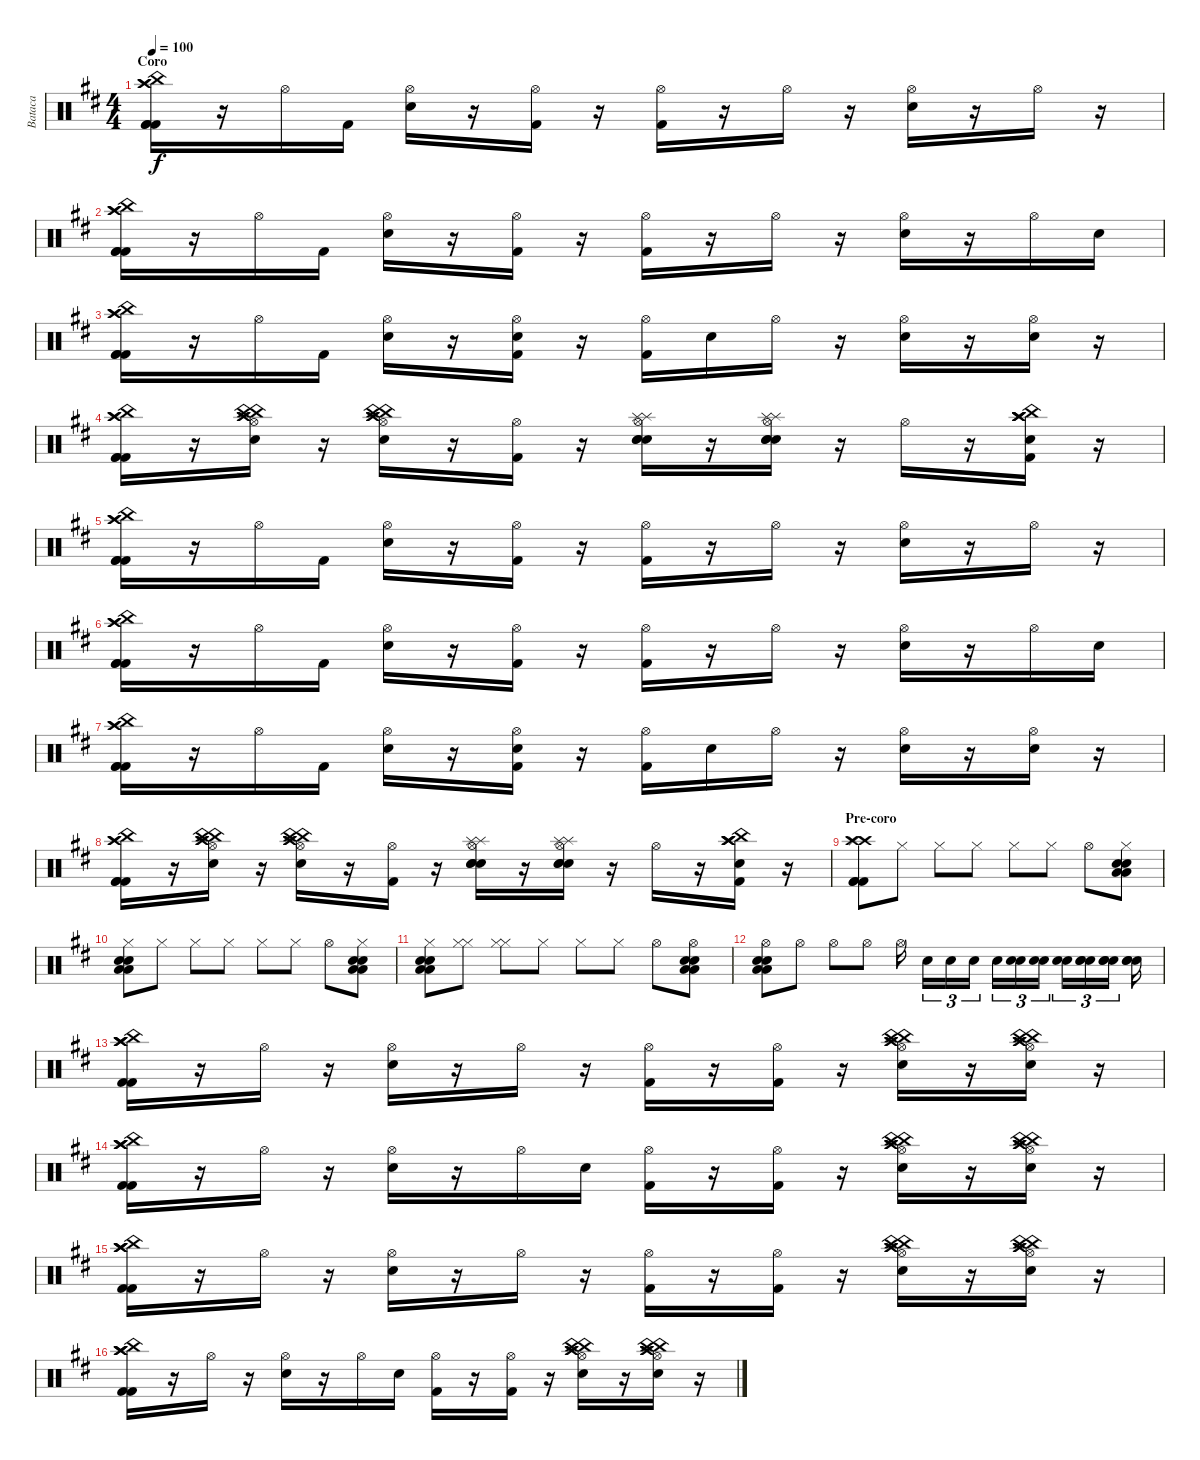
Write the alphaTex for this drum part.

\track ("Bataca" "Bataca") {instrument percussion}
\staff {score}
\articulation defaults
\ts (4 4)
\section ("" "Coro")
\tempo 100
\clef neutral
\ks d
("Crash high (hit)" "Crash high (hit)" "China (hit)" "Kick (hit) 2" "Kick (hit) 2" "Kick (hit) 2").16{dy f} r.16 "Hi-Hat (open)".16 "Kick (hit) 2".16 ("Hi-Hat (open)" "Snare (hit) 2").16 r.16 ("Hi-Hat (open)" "Kick (hit) 2").16 r.16 ("Hi-Hat (open)" "Kick (hit) 2").16 r.16 "Hi-Hat (open)".16 r.16 ("Hi-Hat (open)" "Snare (hit) 2").16 r.16 "Hi-Hat (open)".16 r.16 |
("Crash high (hit)" "Crash high (hit)" "China (hit)" "Kick (hit) 2" "Kick (hit) 2" "Kick (hit) 2").16 r.16 "Hi-Hat (open)".16 "Kick (hit) 2".16 ("Hi-Hat (open)" "Snare (hit) 2").16 r.16 ("Hi-Hat (open)" "Kick (hit) 2").16 r.16 ("Hi-Hat (open)" "Kick (hit) 2").16 r.16 "Hi-Hat (open)".16 r.16 ("Hi-Hat (open)" "Snare (hit) 2").16 r.16 "Hi-Hat (open)".16 "Snare (hit) 2".16 |
("Crash high (hit)" "Crash high (hit)" "China (hit)" "Kick (hit) 2" "Kick (hit) 2" "Kick (hit) 2").16 r.16 "Hi-Hat (open)".16 "Kick (hit) 2".16 ("Hi-Hat (open)" "Snare (hit) 2").16 r.16 ("Hi-Hat (open)" "Snare (hit) 2" "Kick (hit) 2").16 r.16 ("Hi-Hat (open)" "Kick (hit) 2").16 "Snare (hit) 2".16 "Hi-Hat (open)".16 r.16 ("Hi-Hat (open)" "Snare (hit) 2").16 r.16 ("Hi-Hat (open)" "Snare (hit) 2").16 r.16 |
("Crash high (hit)" "Crash high (hit)" "China (hit)" "Kick (hit) 2" "Kick (hit) 2" "Kick (hit) 2").16 r.16 ("Hi-Hat (open)" "Snare (hit) 2" "Crash high (hit)" "Crash high (hit)" "China (hit)" "China (hit)").16 r.16 ("Hi-Hat (open)" "Snare (hit) 2" "Crash high (hit)" "Crash high (hit)" "China (hit)" "China (hit)").16 r.16 ("Hi-Hat (open)" "Kick (hit) 2").16 r.16 ("Hi-Hat (open)" "Snare (hit) 2" "Snare (hit)" "Snare (hit)" "Splash (hit)" "Splash (hit)").16 r.16 ("Hi-Hat (open)" "Snare (hit) 2" "Snare (hit)" "Snare (hit)" "Splash (hit)" "Splash (hit)").16 r.16 "Hi-Hat (open)".16 r.16 ("Kick (hit) 2" "Snare (hit) 2" "Crash high (hit)" "Crash high (hit)" "China (hit)" "Crash high (hit)").16 r.16 |
("Crash high (hit)" "Crash high (hit)" "China (hit)" "Kick (hit) 2" "Kick (hit) 2" "Kick (hit) 2").16 r.16 "Hi-Hat (open)".16 "Kick (hit) 2".16 ("Hi-Hat (open)" "Snare (hit) 2").16 r.16 ("Hi-Hat (open)" "Kick (hit) 2").16 r.16 ("Hi-Hat (open)" "Kick (hit) 2").16 r.16 "Hi-Hat (open)".16 r.16 ("Hi-Hat (open)" "Snare (hit) 2").16 r.16 "Hi-Hat (open)".16 r.16 |
("Crash high (hit)" "Crash high (hit)" "China (hit)" "Kick (hit) 2" "Kick (hit) 2" "Kick (hit) 2").16 r.16 "Hi-Hat (open)".16 "Kick (hit) 2".16 ("Hi-Hat (open)" "Snare (hit) 2").16 r.16 ("Hi-Hat (open)" "Kick (hit) 2").16 r.16 ("Hi-Hat (open)" "Kick (hit) 2").16 r.16 "Hi-Hat (open)".16 r.16 ("Hi-Hat (open)" "Snare (hit) 2").16 r.16 "Hi-Hat (open)".16 "Snare (hit) 2".16 |
("Crash high (hit)" "Crash high (hit)" "China (hit)" "Kick (hit) 2" "Kick (hit) 2" "Kick (hit) 2").16 r.16 "Hi-Hat (open)".16 "Kick (hit) 2".16 ("Hi-Hat (open)" "Snare (hit) 2").16 r.16 ("Hi-Hat (open)" "Snare (hit) 2" "Kick (hit) 2").16 r.16 ("Hi-Hat (open)" "Kick (hit) 2").16 "Snare (hit) 2".16 "Hi-Hat (open)".16 r.16 ("Hi-Hat (open)" "Snare (hit) 2").16 r.16 ("Hi-Hat (open)" "Snare (hit) 2").16 r.16 |
("Crash high (hit)" "Crash high (hit)" "China (hit)" "Kick (hit) 2" "Kick (hit) 2" "Kick (hit) 2").16 r.16 ("Hi-Hat (open)" "Snare (hit) 2" "Crash high (hit)" "Crash high (hit)" "China (hit)" "China (hit)").16 r.16 ("Hi-Hat (open)" "Snare (hit) 2" "Crash high (hit)" "Crash high (hit)" "China (hit)" "China (hit)").16 r.16 ("Hi-Hat (open)" "Kick (hit) 2").16 r.16 ("Hi-Hat (open)" "Snare (hit) 2" "Snare (hit)" "Snare (hit)" "Splash (hit)" "Splash (hit)").16 r.16 ("Hi-Hat (open)" "Snare (hit) 2" "Snare (hit)" "Snare (hit)" "Splash (hit)" "Splash (hit)").16 r.16 "Hi-Hat (open)".16 r.16 ("Kick (hit) 2" "Snare (hit) 2" "Crash high (hit)" "Crash high (hit)" "China (hit)" "Crash high (hit)").16 r.16 |
\section ("" "Pre-coro")
("Crash high (hit)" "Kick (hit) 2" "Splash (hit)" "Crash high (hit)" "Kick (hit) 2" "Kick (hit) 2").8 "Hi-Hat (closed)".8 "Hi-Hat (closed)".8 "Hi-Hat (closed)".8 "Hi-Hat (closed)".8 "Hi-Hat (closed)".8 "Hi-Hat (open)".8 ("Hi-Hat (closed)" "Snare (hit) 2" "Snare (hit) 2" "Low Floor Tom (hit)" "Low Floor Tom (hit)").8 |
("Hi-Hat (closed)" "Snare (hit) 2" "Snare (hit) 2" "Low Floor Tom (hit)" "Low Floor Tom (hit)").8 "Hi-Hat (closed)".8 "Hi-Hat (closed)".8 "Hi-Hat (closed)".8 "Hi-Hat (closed)".8 "Hi-Hat (closed)".8 "Hi-Hat (open)".8 ("Hi-Hat (closed)" "Snare (hit) 2" "Snare (hit) 2" "Low Floor Tom (hit)" "Low Floor Tom (hit)").8 |
("Hi-Hat (closed)" "Snare (hit) 2" "Snare (hit) 2" "Low Floor Tom (hit)" "Low Floor Tom (hit)").8 ("Hi-Hat (closed)" "Hi-Hat (closed)").8 ("Hi-Hat (closed)" "Hi-Hat (closed)").8 "Hi-Hat (closed)".8 "Hi-Hat (closed)".8 "Hi-Hat (closed)".8 "Hi-Hat (open)".8 ("Hi-Hat (open)" "Snare (hit) 2" "Snare (hit) 2" "Low Floor Tom (hit)" "Low Floor Tom (hit)").8 |
("Hi-Hat (open)" "Snare (hit) 2" "Snare (hit) 2" "Low Floor Tom (hit)" "Low Floor Tom (hit)").8 "Hi-Hat (open)".8 "Hi-Hat (open)".8{volume 16} "Hi-Hat (open)".8 "Hi-Hat (open)".16 "Snare (hit) 2".16{tu (3 2)} "Snare (hit) 2".16{tu (3 2)} "Snare (hit) 2".16{tu (3 2)} "Snare (hit) 2".16{tu (3 2)} ("Snare (hit) 2" "Snare (hit) 2").16{tu (3 2)} ("Snare (hit) 2" "Snare (hit) 2").16{tu (3 2)} ("Snare (hit) 2" "Snare (hit) 2").16{tu (3 2)} ("Snare (hit) 2" "Snare (hit) 2" "Snare (hit) 2").16{tu (3 2)} ("Snare (hit) 2" "Snare (hit) 2" "Snare (hit) 2").16{tu (3 2)} ("Snare (hit) 2" "Snare (hit) 2" "Snare (hit) 2").16 |
("Crash high (hit)" "China (hit)" "Crash high (hit)" "Crash high (hit)" "Kick (hit) 2" "Kick (hit) 2").16 r.16 "Hi-Hat (open)".16 r.16 ("Hi-Hat (open)" "Snare (hit) 2").16 r.16 "Hi-Hat (open)".16 r.16 ("Hi-Hat (open)" "Kick (hit) 2").16 r.16 ("Hi-Hat (open)" "Kick (hit) 2").16 r.16 ("Hi-Hat (open)" "Snare (hit) 2" "Crash high (hit)" "Crash high (hit)" "China (hit)" "China (hit)").16 r.16 ("Hi-Hat (open)" "Snare (hit) 2" "Crash high (hit)" "Crash high (hit)" "China (hit)" "China (hit)").16 r.16 |
("Crash high (hit)" "China (hit)" "Crash high (hit)" "Crash high (hit)" "Kick (hit) 2" "Kick (hit) 2").16 r.16 "Hi-Hat (open)".16 r.16 ("Hi-Hat (open)" "Snare (hit) 2").16 r.16 "Hi-Hat (open)".16 "Snare (hit) 2".16 ("Hi-Hat (open)" "Kick (hit) 2").16 r.16 ("Hi-Hat (open)" "Kick (hit) 2").16 r.16 ("Hi-Hat (open)" "Snare (hit) 2" "Crash high (hit)" "Crash high (hit)" "China (hit)" "China (hit)").16 r.16 ("Hi-Hat (open)" "Snare (hit) 2" "Crash high (hit)" "Crash high (hit)" "China (hit)" "China (hit)").16 r.16 |
("Crash high (hit)" "China (hit)" "Crash high (hit)" "Crash high (hit)" "Kick (hit) 2" "Kick (hit) 2").16 r.16 "Hi-Hat (open)".16 r.16 ("Hi-Hat (open)" "Snare (hit) 2").16 r.16 "Hi-Hat (open)".16 r.16 ("Hi-Hat (open)" "Kick (hit) 2").16 r.16 ("Hi-Hat (open)" "Kick (hit) 2").16 r.16 ("Hi-Hat (open)" "Snare (hit) 2" "Crash high (hit)" "Crash high (hit)" "China (hit)" "China (hit)").16 r.16 ("Hi-Hat (open)" "Snare (hit) 2" "Crash high (hit)" "Crash high (hit)" "China (hit)" "China (hit)").16 r.16 |
("Crash high (hit)" "China (hit)" "Crash high (hit)" "Crash high (hit)" "Kick (hit) 2" "Kick (hit) 2").16 r.16 "Hi-Hat (open)".16 r.16 ("Hi-Hat (open)" "Snare (hit) 2").16 r.16 "Hi-Hat (open)".16 "Snare (hit) 2".16 ("Hi-Hat (open)" "Kick (hit) 2").16 r.16 ("Hi-Hat (open)" "Kick (hit) 2").16 r.16 ("Hi-Hat (open)" "Snare (hit) 2" "Crash high (hit)" "Crash high (hit)" "China (hit)" "China (hit)").16 r.16 ("Hi-Hat (open)" "Snare (hit) 2" "Crash high (hit)" "Crash high (hit)" "China (hit)" "China (hit)").16 r.16
